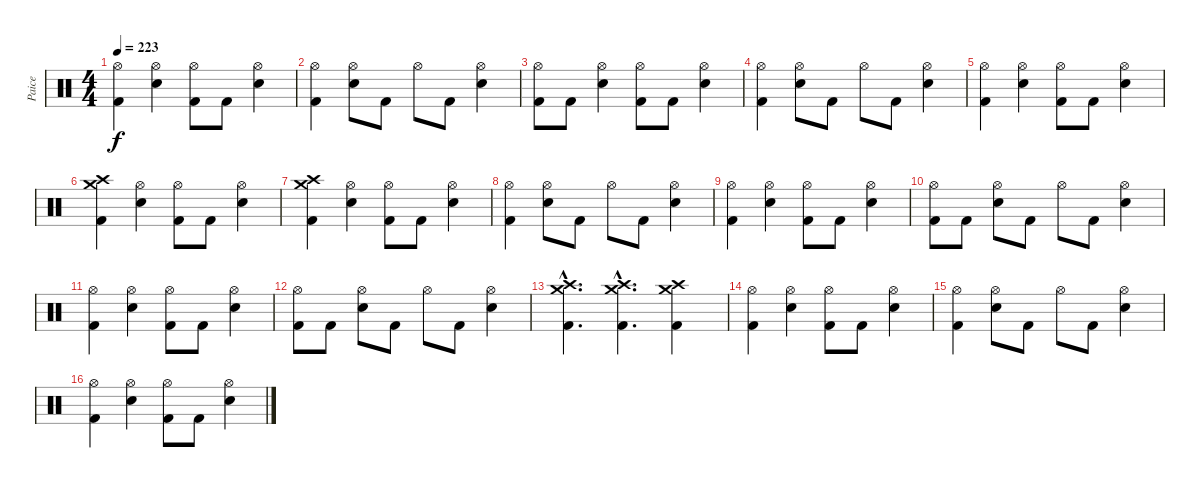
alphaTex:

\track ("Paice" "Paice") {instrument percussion}
\staff {score}
\articulation defaults
\ts (4 4)
\tempo 223
\clef neutral
\ks c
("Hi-Hat (open)" "Kick (hit) 2").4{dy f} ("Hi-Hat (open)" "Electric Snare (hit)").4 ("Hi-Hat (open)" "Kick (hit) 2").8 "Kick (hit) 2".8 ("Hi-Hat (open)" "Electric Snare (hit)").4 |
("Hi-Hat (open)" "Kick (hit) 2").4 ("Hi-Hat (open)" "Electric Snare (hit)").8 "Kick (hit) 2".8 "Hi-Hat (open)".8 "Kick (hit) 2".8 ("Hi-Hat (open)" "Electric Snare (hit)").4 |
("Hi-Hat (open)" "Kick (hit) 2").8 "Kick (hit) 2".8 ("Hi-Hat (open)" "Electric Snare (hit)").4 ("Hi-Hat (open)" "Kick (hit) 2").8 "Kick (hit) 2".8 ("Hi-Hat (open)" "Electric Snare (hit)").4 |
("Hi-Hat (open)" "Kick (hit) 2").4 ("Hi-Hat (open)" "Electric Snare (hit)").8 "Kick (hit) 2".8 "Hi-Hat (open)".8 "Kick (hit) 2".8 ("Hi-Hat (open)" "Electric Snare (hit)").4 |
("Hi-Hat (open)" "Kick (hit) 2").4 ("Hi-Hat (open)" "Electric Snare (hit)").4 ("Hi-Hat (open)" "Kick (hit) 2").8 "Kick (hit) 2".8 ("Hi-Hat (open)" "Electric Snare (hit)").4 |
("Crash high (hit)" "Crash medium (hit)" "Kick (hit) 2").4 ("Hi-Hat (open)" "Electric Snare (hit)").4 ("Hi-Hat (open)" "Kick (hit) 2").8 "Kick (hit) 2".8 ("Hi-Hat (open)" "Electric Snare (hit)").4 |
("Crash high (hit)" "Crash medium (hit)" "Kick (hit) 2").4 ("Hi-Hat (open)" "Electric Snare (hit)").4 ("Hi-Hat (open)" "Kick (hit) 2").8 "Kick (hit) 2".8 ("Hi-Hat (open)" "Electric Snare (hit)").4 |
("Hi-Hat (open)" "Kick (hit) 2").4 ("Hi-Hat (open)" "Electric Snare (hit)").8 "Kick (hit) 2".8 "Hi-Hat (open)".8 "Kick (hit) 2".8 ("Hi-Hat (open)" "Electric Snare (hit)").4 |
("Hi-Hat (open)" "Kick (hit) 2").4 ("Hi-Hat (open)" "Electric Snare (hit)").4 ("Hi-Hat (open)" "Kick (hit) 2").8 "Kick (hit) 2".8 ("Hi-Hat (open)" "Electric Snare (hit)").4 |
("Hi-Hat (open)" "Kick (hit) 2").8 "Kick (hit) 2".8 ("Hi-Hat (open)" "Electric Snare (hit)").8 "Kick (hit) 2".8 "Hi-Hat (open)".8 "Kick (hit) 2".8 ("Hi-Hat (open)" "Electric Snare (hit)").4 |
("Hi-Hat (open)" "Kick (hit) 2").4 ("Hi-Hat (open)" "Electric Snare (hit)").4 ("Hi-Hat (open)" "Kick (hit) 2").8 "Kick (hit) 2".8 ("Hi-Hat (open)" "Electric Snare (hit)").4 |
("Hi-Hat (open)" "Kick (hit) 2").8 "Kick (hit) 2".8 ("Hi-Hat (open)" "Electric Snare (hit)").8 "Kick (hit) 2".8 "Hi-Hat (open)".8 "Kick (hit) 2".8 ("Hi-Hat (open)" "Electric Snare (hit)").4 |
("Crash high (hit)"{hac} "Crash medium (hit)"{hac} "Kick (hit) 2"{hac}).4{d} ("Crash high (hit)"{hac} "Crash medium (hit)"{hac} "Kick (hit) 2"{hac}).4{d} ("Crash high (hit)" "Crash medium (hit)" "Kick (hit) 2").4 |
("Hi-Hat (open)" "Kick (hit) 2").4 ("Hi-Hat (open)" "Electric Snare (hit)").4 ("Hi-Hat (open)" "Kick (hit) 2").8 "Kick (hit) 2".8 ("Hi-Hat (open)" "Electric Snare (hit)").4 |
("Hi-Hat (open)" "Kick (hit) 2").4 ("Hi-Hat (open)" "Electric Snare (hit)").8 "Kick (hit) 2".8 "Hi-Hat (open)".8 "Kick (hit) 2".8 ("Hi-Hat (open)" "Electric Snare (hit)").4 |
("Hi-Hat (open)" "Kick (hit) 2").4 ("Hi-Hat (open)" "Electric Snare (hit)").4 ("Hi-Hat (open)" "Kick (hit) 2").8 "Kick (hit) 2".8 ("Hi-Hat (open)" "Electric Snare (hit)").4
